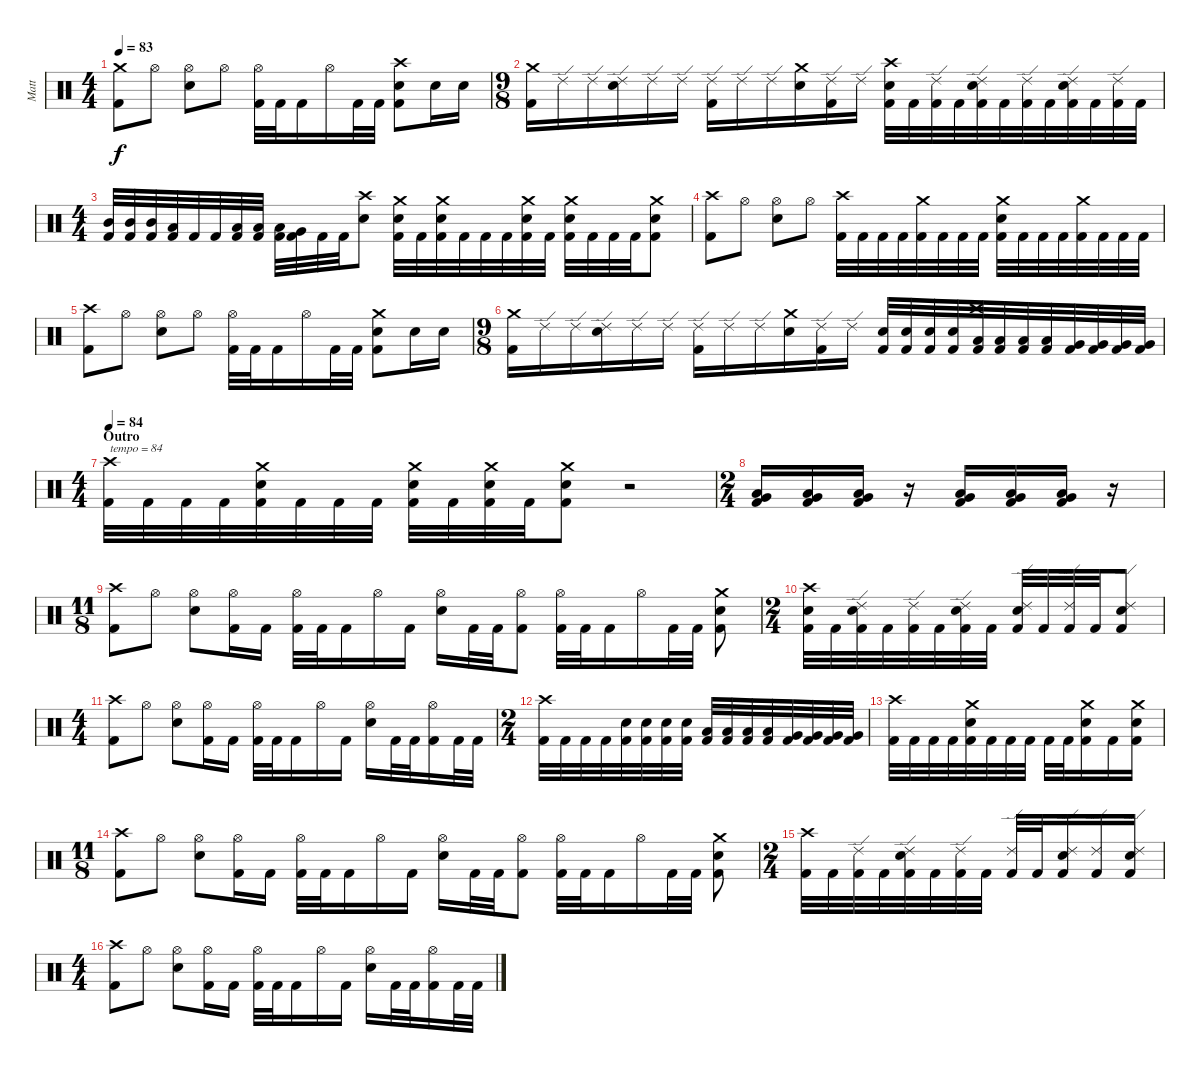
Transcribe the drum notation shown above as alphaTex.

\track ("Matt" "Matt") {instrument percussion}
\staff {score}
\articulation defaults
\ts (4 4)
\tempo 83
\clef neutral
\ks c
("Crash medium (hit)" "Kick (hit) 2").8{dy f} "Hi-Hat (open)".8 ("Hi-Hat (open)" "Electric Snare (hit)").8 "Hi-Hat (open)".8 ("Hi-Hat (open)" "Kick (hit) 2").32 "Kick (hit) 2".32 "Kick (hit) 2".16 "Hi-Hat (open)".16 "Kick (hit) 2".32 "Kick (hit) 2".32 ("Crash high (hit)" "Electric Snare (hit)" "Kick (hit) 2").8 "Electric Snare (hit)".16 "Electric Snare (hit)".16 |
\ts (9 8)
("Crash medium (hit)" "Kick (hit) 2").16 "Ride (edge) 2".16 "Ride (edge) 2".16 ("Ride (edge) 2" "Electric Snare (hit)").16 "Ride (edge) 2".16 "Ride (edge) 2".16 ("Ride (edge) 2" "Kick (hit) 2").16 "Ride (edge) 2".16 "Ride (edge) 2".16 ("Crash medium (hit)" "Electric Snare (hit)").16 ("Ride (edge) 2" "Kick (hit) 2").16 "Ride (edge) 2".16 ("Crash high (hit)" "Electric Snare (hit)" "Kick (hit) 2").32 "Kick (hit) 2".32 ("Ride (edge) 2" "Kick (hit) 2").32 "Kick (hit) 2".32 ("Ride (edge) 2" "Electric Snare (hit)" "Kick (hit) 2").32 "Kick (hit) 2".32 ("Ride (edge) 2" "Kick (hit) 2").32 "Kick (hit) 2".32 ("Ride (edge) 2" "Electric Snare (hit)" "Kick (hit) 2").32 "Kick (hit) 2".32 ("Ride (edge) 2" "Kick (hit) 2").32 "Kick (hit) 2".32 |
\ts (4 4)
("Mid Tom (hit)" "Kick (hit) 2").32 ("Mid Tom (hit)" "Kick (hit) 2").32 ("Mid Tom (hit)" "Kick (hit) 2").32 ("Low Tom (hit)" "Kick (hit) 2").32 "Kick (hit) 2".32 "Kick (hit) 2".32 ("Low Tom (hit)" "Kick (hit) 2").32 ("Low Tom (hit)" "Kick (hit) 2").32 ("Low Tom (hit)" "Kick (hit) 2").32 ("Very Low Tom (hit)" "Kick (hit) 2").32 "Kick (hit) 2".32 "Kick (hit) 2".32 ("Crash high (hit)" "Electric Snare (hit)").8 ("Crash medium (hit)" "Electric Snare (hit)" "Kick (hit) 2").32 "Kick (hit) 2".32 ("Crash medium (hit)" "Electric Snare (hit)" "Kick (hit) 2").32 "Kick (hit) 2".32 "Kick (hit) 2".32 "Kick (hit) 2".32 ("Crash medium (hit)" "Electric Snare (hit)" "Kick (hit) 2").32 "Kick (hit) 2".32 ("Crash medium (hit)" "Electric Snare (hit)" "Kick (hit) 2").32 "Kick (hit) 2".32 "Kick (hit) 2".32 "Kick (hit) 2".32 ("Crash medium (hit)" "Electric Snare (hit)" "Kick (hit) 2").8 |
("Crash high (hit)" "Kick (hit) 2").8 "Hi-Hat (open)".8 ("Hi-Hat (open)" "Electric Snare (hit)").8 "Hi-Hat (open)".8 ("Crash high (hit)" "Kick (hit) 2").32 "Kick (hit) 2".32 "Kick (hit) 2".32 "Kick (hit) 2".32 ("Crash medium (hit)" "Kick (hit) 2").32 "Kick (hit) 2".32 "Kick (hit) 2".32 "Kick (hit) 2".32 ("Crash medium (hit)" "Electric Snare (hit)" "Kick (hit) 2").32 "Kick (hit) 2".32 "Kick (hit) 2".32 "Kick (hit) 2".32 ("Crash medium (hit)" "Kick (hit) 2").32 "Kick (hit) 2".32 "Kick (hit) 2".32 "Kick (hit) 2".32 |
("Crash high (hit)" "Kick (hit) 2").8 "Hi-Hat (open)".8 ("Hi-Hat (open)" "Electric Snare (hit)").8 "Hi-Hat (open)".8 ("Hi-Hat (open)" "Kick (hit) 2").32 "Kick (hit) 2".32 "Kick (hit) 2".16 "Hi-Hat (open)".16 "Kick (hit) 2".32 "Kick (hit) 2".32 ("Crash medium (hit)" "Electric Snare (hit)" "Kick (hit) 2").8 "Electric Snare (hit)".16 "Electric Snare (hit)".16 |
\ts (9 8)
("Crash medium (hit)" "Kick (hit) 2").16 "Ride (edge) 2".16 "Ride (edge) 2".16 ("Ride (edge) 2" "Electric Snare (hit)").16 "Ride (edge) 2".16 "Ride (edge) 2".16 ("Ride (edge) 2" "Kick (hit) 2").16 "Ride (edge) 2".16 "Ride (edge) 2".16 ("Crash medium (hit)" "Electric Snare (hit)").16 ("Ride (edge) 2" "Kick (hit) 2").16 "Ride (edge) 2".16 ("Electric Snare (hit)" "Kick (hit) 2").32 ("Electric Snare (hit)" "Kick (hit) 2").32 ("Electric Snare (hit)" "Kick (hit) 2").32 ("Electric Snare (hit)" "Kick (hit) 2").32 ("Crash high (hit)" "Low Tom (hit)" "Kick (hit) 2").32 ("Low Tom (hit)" "Kick (hit) 2").32 ("Low Tom (hit)" "Kick (hit) 2").32 ("Low Tom (hit)" "Kick (hit) 2").32 ("Very Low Tom (hit)" "Kick (hit) 2").32 ("Very Low Tom (hit)" "Kick (hit) 2").32 ("Very Low Tom (hit)" "Kick (hit) 2").32 ("Very Low Tom (hit)" "Kick (hit) 2").32 |
\ts (4 4)
\section ("" "Outro")
\tempo 84
("Crash high (hit)" "Kick (hit) 2").32{txt "tempo = 84"} "Kick (hit) 2".32 "Kick (hit) 2".32 "Kick (hit) 2".32 ("Crash medium (hit)" "Electric Snare (hit)" "Kick (hit) 2").32 "Kick (hit) 2".32 "Kick (hit) 2".32 "Kick (hit) 2".32 ("Crash medium (hit)" "Electric Snare (hit)" "Kick (hit) 2").32 "Kick (hit) 2".32 ("Crash medium (hit)" "Electric Snare (hit)" "Kick (hit) 2").32 "Kick (hit) 2".32 ("Crash medium (hit)" "Electric Snare (hit)" "Kick (hit) 2").8 r.2 |
\ts (2 4)
("Low Tom (hit)" "Very Low Tom (hit)" "Kick (hit) 2").16 ("Low Tom (hit)" "Very Low Tom (hit)" "Kick (hit) 2").16 ("Low Tom (hit)" "Very Low Tom (hit)" "Kick (hit) 2").16 r.16 ("Low Tom (hit)" "Very Low Tom (hit)" "Kick (hit) 2").16 ("Low Tom (hit)" "Very Low Tom (hit)" "Kick (hit) 2").16 ("Low Tom (hit)" "Very Low Tom (hit)" "Kick (hit) 2").16 r.16 |
\ts (11 8)
("Crash high (hit)" "Kick (hit) 2").8 "Hi-Hat (open)".8 ("Hi-Hat (open)" "Electric Snare (hit)").8 ("Hi-Hat (open)" "Kick (hit) 2").16 "Kick (hit) 2".16 ("Hi-Hat (open)" "Kick (hit) 2").32 "Kick (hit) 2".32 "Kick (hit) 2".16 "Hi-Hat (open)".16 "Kick (hit) 2".16 ("Hi-Hat (open)" "Electric Snare (hit)").16 "Kick (hit) 2".32 "Kick (hit) 2".32 ("Hi-Hat (open)" "Kick (hit) 2").8 ("Hi-Hat (open)" "Kick (hit) 2").32 "Kick (hit) 2".32 "Kick (hit) 2".16 "Hi-Hat (open)".16 "Kick (hit) 2".32 "Kick (hit) 2".32 ("Crash medium (hit)" "Electric Snare (hit)" "Kick (hit) 2").8 |
\ts (2 4)
("Crash high (hit)" "Electric Snare (hit)" "Kick (hit) 2").32 "Kick (hit) 2".32 ("Ride (edge) 2" "Electric Snare (hit)" "Kick (hit) 2").32 "Kick (hit) 2".32 ("Ride (edge) 2" "Kick (hit) 2").32 "Kick (hit) 2".32 ("Ride (edge) 2" "Electric Snare (hit)" "Kick (hit) 2").32 "Kick (hit) 2".32 ("Ride (edge) 2" "Electric Snare (hit)" "Kick (hit) 2").32 "Kick (hit) 2".32 ("Ride (edge) 2" "Kick (hit) 2").32 "Kick (hit) 2".32 ("Ride (edge) 2" "Electric Snare (hit)" "Kick (hit) 2").8 |
\ts (4 4)
("Crash high (hit)" "Kick (hit) 2").8 "Hi-Hat (open)".8 ("Hi-Hat (open)" "Electric Snare (hit)").8 ("Hi-Hat (open)" "Kick (hit) 2").16 "Kick (hit) 2".16 ("Hi-Hat (open)" "Kick (hit) 2").32 "Kick (hit) 2".32 "Kick (hit) 2".16 "Hi-Hat (open)".16 "Kick (hit) 2".16 ("Hi-Hat (open)" "Electric Snare (hit)").16 "Kick (hit) 2".32 "Kick (hit) 2".32 ("Hi-Hat (open)" "Kick (hit) 2").16 "Kick (hit) 2".32 "Kick (hit) 2".32 |
\ts (2 4)
("Crash high (hit)" "Kick (hit) 2").32 "Kick (hit) 2".32 "Kick (hit) 2".32 "Kick (hit) 2".32 ("Electric Snare (hit)" "Kick (hit) 2").32 ("Electric Snare (hit)" "Kick (hit) 2").32 ("Electric Snare (hit)" "Kick (hit) 2").32 ("Electric Snare (hit)" "Kick (hit) 2").32 ("Low Tom (hit)" "Kick (hit) 2").32 ("Low Tom (hit)" "Kick (hit) 2").32 ("Low Tom (hit)" "Kick (hit) 2").32 ("Low Tom (hit)" "Kick (hit) 2").32 ("Very Low Tom (hit)" "Kick (hit) 2").32 ("Very Low Tom (hit)" "Kick (hit) 2").32 ("Very Low Tom (hit)" "Kick (hit) 2").32 ("Very Low Tom (hit)" "Kick (hit) 2").32 |
("Crash high (hit)" "Kick (hit) 2").32 "Kick (hit) 2".32 "Kick (hit) 2".32 "Kick (hit) 2".32 ("Crash medium (hit)" "Electric Snare (hit)" "Kick (hit) 2").32 "Kick (hit) 2".32 "Kick (hit) 2".32 "Kick (hit) 2".32 "Kick (hit) 2".32 "Kick (hit) 2".32 ("Crash medium (hit)" "Electric Snare (hit)" "Kick (hit) 2").16 "Kick (hit) 2".16 ("Crash medium (hit)" "Electric Snare (hit)" "Kick (hit) 2").16 |
\ts (11 8)
("Crash high (hit)" "Kick (hit) 2").8 "Hi-Hat (open)".8 ("Hi-Hat (open)" "Electric Snare (hit)").8 ("Hi-Hat (open)" "Kick (hit) 2").16 "Kick (hit) 2".16 ("Hi-Hat (open)" "Kick (hit) 2").32 "Kick (hit) 2".32 "Kick (hit) 2".16 "Hi-Hat (open)".16 "Kick (hit) 2".16 ("Hi-Hat (open)" "Electric Snare (hit)").16 "Kick (hit) 2".32 "Kick (hit) 2".32 ("Hi-Hat (open)" "Kick (hit) 2").8 ("Hi-Hat (open)" "Kick (hit) 2").32 "Kick (hit) 2".32 "Kick (hit) 2".16 "Hi-Hat (open)".16 "Kick (hit) 2".32 "Kick (hit) 2".32 ("Crash medium (hit)" "Electric Snare (hit)" "Kick (hit) 2").8 |
\ts (2 4)
("Crash high (hit)" "Kick (hit) 2").32 "Kick (hit) 2".32 ("Ride (edge) 2" "Kick (hit) 2").32 "Kick (hit) 2".32 ("Ride (edge) 2" "Electric Snare (hit)" "Kick (hit) 2").32 "Kick (hit) 2".32 ("Ride (edge) 2" "Kick (hit) 2").32 "Kick (hit) 2".32 ("Ride (edge) 2" "Kick (hit) 2").32 "Kick (hit) 2".32 ("Ride (edge) 2" "Electric Snare (hit)" "Kick (hit) 2").16 ("Ride (edge) 2" "Kick (hit) 2").16 ("Ride (edge) 2" "Electric Snare (hit)" "Kick (hit) 2").16 |
\ts (4 4)
("Crash high (hit)" "Kick (hit) 2").8 "Hi-Hat (open)".8 ("Hi-Hat (open)" "Electric Snare (hit)").8 ("Hi-Hat (open)" "Kick (hit) 2").16 "Kick (hit) 2".16 ("Hi-Hat (open)" "Kick (hit) 2").32 "Kick (hit) 2".32 "Kick (hit) 2".16 "Hi-Hat (open)".16 "Kick (hit) 2".16 ("Hi-Hat (open)" "Electric Snare (hit)").16 "Kick (hit) 2".32 "Kick (hit) 2".32 ("Hi-Hat (open)" "Kick (hit) 2").16 "Kick (hit) 2".32 "Kick (hit) 2".32
